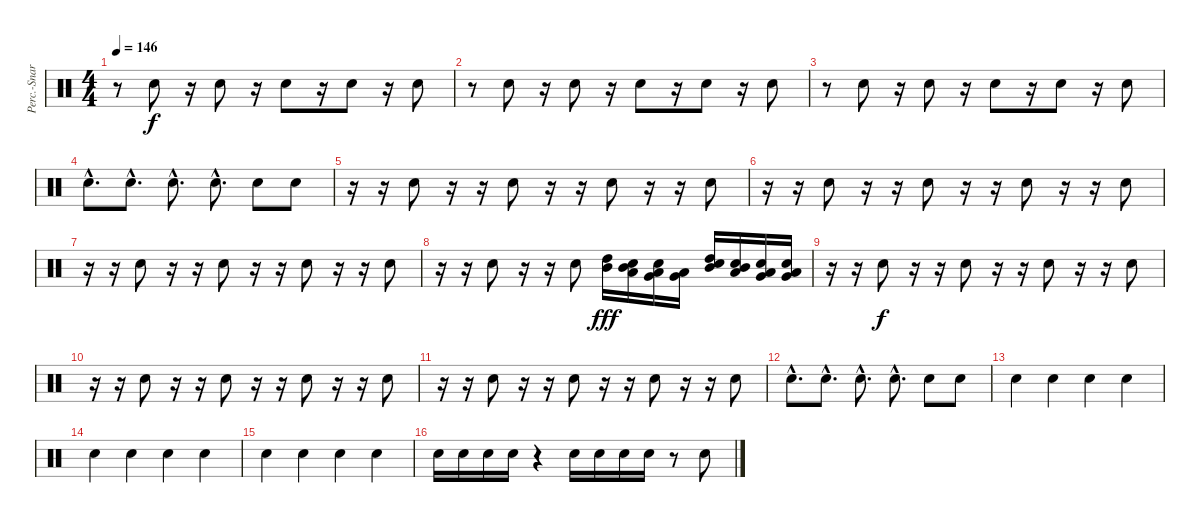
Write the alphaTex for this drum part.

\track ("Perc.-Snare" "Perc.-Snar") {instrument percussion}
\staff {score}
\articulation defaults
\ts (4 4)
\tempo 146
\clef neutral
\ks c
r.8{dy fff} "Snare (hit) 2".8{dy f} r.16 "Snare (hit) 2".8 r.16 "Snare (hit) 2".8 r.16 "Snare (hit) 2".8 r.16 "Snare (hit) 2".8 |
r.8 "Snare (hit) 2".8 r.16 "Snare (hit) 2".8 r.16 "Snare (hit) 2".8 r.16 "Snare (hit) 2".8 r.16 "Snare (hit) 2".8 |
r.8 "Snare (hit) 2".8 r.16 "Snare (hit) 2".8 r.16 "Snare (hit) 2".8 r.16 "Snare (hit) 2".8 r.16 "Snare (hit) 2".8 |
"Snare (hit) 2"{hac}.8{d} "Snare (hit) 2"{hac}.8{d} "Snare (hit) 2"{hac}.8{d} "Snare (hit) 2"{hac}.8{d} "Snare (hit) 2".8 "Snare (hit) 2".8 |
r.16 r.16 "Snare (hit) 2".8 r.16 r.16 "Snare (hit) 2".8 r.16 r.16 "Snare (hit) 2".8 r.16 r.16 "Snare (hit) 2".8 |
r.16 r.16 "Snare (hit) 2".8 r.16 r.16 "Snare (hit) 2".8 r.16 r.16 "Snare (hit) 2".8 r.16 r.16 "Snare (hit) 2".8 |
r.16 r.16 "Snare (hit) 2".8 r.16 r.16 "Snare (hit) 2".8 r.16 r.16 "Snare (hit) 2".8 r.16 r.16 "Snare (hit) 2".8 |
r.16 r.16 "Snare (hit) 2".8 r.16 r.16 "Snare (hit) 2".8 ("High Tom (hit)" "Mid Tom (hit)").16{dy fff} ("Mid Tom (hit)" "Low Tom (hit)" "Snare (hit) 2").16 ("Low Tom (hit)" "Very Low Tom (hit)" "Snare (hit) 2").16 ("Very Low Tom (hit)" "Low Floor Tom (hit)").16 ("High Tom (hit)" "Mid Tom (hit)" "Snare (hit) 2").16 ("Mid Tom (hit)" "Low Tom (hit)" "Snare (hit) 2").16 ("Low Tom (hit)" "Very Low Tom (hit)" "Snare (hit) 2").16 ("Very Low Tom (hit)" "Low Floor Tom (hit)" "Snare (hit) 2").16 |
r.16 r.16 "Snare (hit) 2".8{dy f} r.16 r.16 "Snare (hit) 2".8 r.16 r.16 "Snare (hit) 2".8 r.16 r.16 "Snare (hit) 2".8 |
r.16 r.16 "Snare (hit) 2".8 r.16 r.16 "Snare (hit) 2".8 r.16 r.16 "Snare (hit) 2".8 r.16 r.16 "Snare (hit) 2".8 |
r.16 r.16 "Snare (hit) 2".8 r.16 r.16 "Snare (hit) 2".8 r.16 r.16 "Snare (hit) 2".8 r.16 r.16 "Snare (hit) 2".8 |
"Snare (hit) 2"{hac}.8{d} "Snare (hit) 2"{hac}.8{d} "Snare (hit) 2"{hac}.8{d} "Snare (hit) 2"{hac}.8{d} "Snare (hit) 2".8 "Snare (hit) 2".8 |
"Snare (hit) 2".4 "Snare (hit) 2".4 "Snare (hit) 2".4 "Snare (hit) 2".4 |
"Snare (hit) 2".4 "Snare (hit) 2".4 "Snare (hit) 2".4 "Snare (hit) 2".4 |
"Snare (hit) 2".4 "Snare (hit) 2".4 "Snare (hit) 2".4 "Snare (hit) 2".4 |
"Snare (hit) 2".16 "Snare (hit) 2".16 "Snare (hit) 2".16 "Snare (hit) 2".16 r.4 "Snare (hit) 2".16 "Snare (hit) 2".16 "Snare (hit) 2".16 "Snare (hit) 2".16 r.8 "Snare (hit) 2".8
